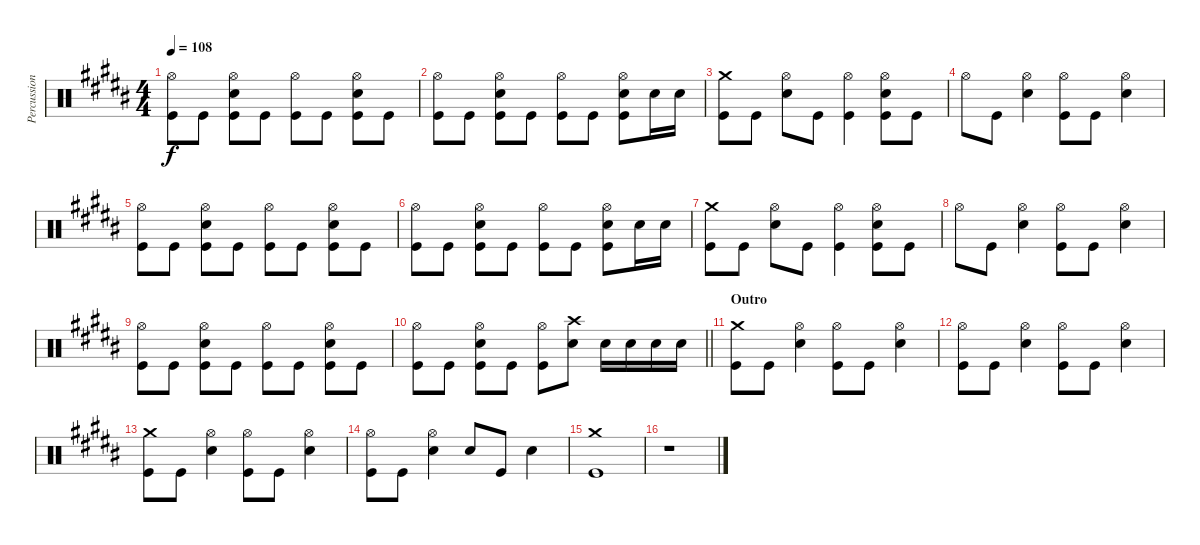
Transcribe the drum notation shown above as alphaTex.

\track ("Percussion" "Percussion") {instrument percussion}
\staff {score}
\articulation defaults
\ts (4 4)
\tempo 108
\clef neutral
\ks b
("Hi-Hat (open)" "Kick (hit)").8{dy f} "Kick (hit)".8 ("Hi-Hat (open)" "Electric Snare (hit)" "Kick (hit)").8 "Kick (hit)".8 ("Hi-Hat (open)" "Kick (hit)").8 "Kick (hit)".8 ("Hi-Hat (open)" "Electric Snare (hit)" "Kick (hit)").8 "Kick (hit)".8 |
("Hi-Hat (open)" "Kick (hit)").8 "Kick (hit)".8 ("Hi-Hat (open)" "Electric Snare (hit)" "Kick (hit)").8 "Kick (hit)".8 ("Hi-Hat (open)" "Kick (hit)").8 "Kick (hit)".8 ("Hi-Hat (open)" "Electric Snare (hit)" "Kick (hit)").8 "Electric Snare (hit)".16 "Electric Snare (hit)".16 |
("Crash medium (hit)" "Kick (hit)").8 "Kick (hit)".8 ("Hi-Hat (open)" "Electric Snare (hit)").8 "Kick (hit)".8 ("Hi-Hat (open)" "Kick (hit)").4 ("Hi-Hat (open)" "Electric Snare (hit)" "Kick (hit)").8 "Kick (hit)".8 |
"Hi-Hat (open)".8 "Kick (hit)".8 ("Hi-Hat (open)" "Electric Snare (hit)").4 ("Hi-Hat (open)" "Kick (hit)").8 "Kick (hit)".8 ("Hi-Hat (open)" "Electric Snare (hit)").4 |
("Hi-Hat (open)" "Kick (hit)").8 "Kick (hit)".8 ("Hi-Hat (open)" "Electric Snare (hit)" "Kick (hit)").8 "Kick (hit)".8 ("Hi-Hat (open)" "Kick (hit)").8 "Kick (hit)".8 ("Hi-Hat (open)" "Electric Snare (hit)" "Kick (hit)").8 "Kick (hit)".8 |
("Hi-Hat (open)" "Kick (hit)").8 "Kick (hit)".8 ("Hi-Hat (open)" "Electric Snare (hit)" "Kick (hit)").8 "Kick (hit)".8 ("Hi-Hat (open)" "Kick (hit)").8 "Kick (hit)".8 ("Hi-Hat (open)" "Electric Snare (hit)" "Kick (hit)").8 "Electric Snare (hit)".16 "Electric Snare (hit)".16 |
("Crash medium (hit)" "Kick (hit)").8 "Kick (hit)".8 ("Hi-Hat (open)" "Electric Snare (hit)").8 "Kick (hit)".8 ("Hi-Hat (open)" "Kick (hit)").4 ("Hi-Hat (open)" "Electric Snare (hit)" "Kick (hit)").8 "Kick (hit)".8 |
"Hi-Hat (open)".8 "Kick (hit)".8 ("Hi-Hat (open)" "Electric Snare (hit)").4 ("Hi-Hat (open)" "Kick (hit)").8 "Kick (hit)".8 ("Hi-Hat (open)" "Electric Snare (hit)").4 |
("Hi-Hat (open)" "Kick (hit)").8 "Kick (hit)".8 ("Hi-Hat (open)" "Electric Snare (hit)" "Kick (hit)").8 "Kick (hit)".8 ("Hi-Hat (open)" "Kick (hit)").8 "Kick (hit)".8 ("Hi-Hat (open)" "Electric Snare (hit)" "Kick (hit)").8 "Kick (hit)".8 |
\barLineRight lightlight
("Hi-Hat (open)" "Kick (hit)").8 "Kick (hit)".8 ("Hi-Hat (open)" "Electric Snare (hit)" "Kick (hit)").8 "Kick (hit)".8 ("Hi-Hat (open)" "Kick (hit)").8 ("Crash high (hit)" "Electric Snare (hit)").8 "Electric Snare (hit)".16 "Electric Snare (hit)".16 "Electric Snare (hit)".16 "Electric Snare (hit)".16 |
\section ("" "Outro")
("Crash medium (hit)" "Kick (hit)").8 "Kick (hit)".8 ("Hi-Hat (open)" "Electric Snare (hit)").4 ("Hi-Hat (open)" "Kick (hit)").8 "Kick (hit)".8 ("Hi-Hat (open)" "Electric Snare (hit)").4 |
("Hi-Hat (open)" "Kick (hit)").8 "Kick (hit)".8 ("Hi-Hat (open)" "Electric Snare (hit)").4 ("Hi-Hat (open)" "Kick (hit)").8 "Kick (hit)".8 ("Hi-Hat (open)" "Electric Snare (hit)").4 |
("Crash medium (hit)" "Kick (hit)").8 "Kick (hit)".8 ("Hi-Hat (open)" "Electric Snare (hit)").4 ("Hi-Hat (open)" "Kick (hit)").8 "Kick (hit)".8 ("Hi-Hat (open)" "Electric Snare (hit)").4 |
("Hi-Hat (open)" "Kick (hit)").8 "Kick (hit)".8 ("Hi-Hat (open)" "Electric Snare (hit)").4 "Electric Snare (hit)".8 "Kick (hit)".8 "Electric Snare (hit)".4 |
("Crash medium (hit)" "Kick (hit)").1 |
r.1
